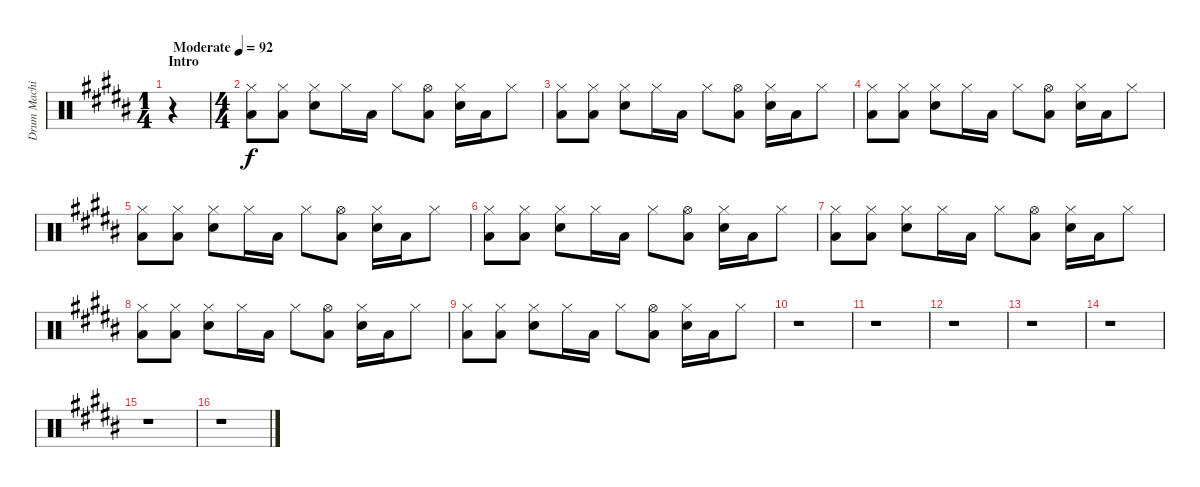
\track ("Drum Machine" "Drum Machi") {instrument percussion}
\staff {score}
\articulation defaults
\ts (1 4)
\section ("" "Intro")
\tempo (92 "Moderate")
\clef neutral
\ks b
r.4{dy f} |
\ts (4 4)
("Hi-Hat (closed)" "Low Floor Tom (hit)").8 ("Hi-Hat (closed)" "Low Floor Tom (hit)").8 ("Hi-Hat (closed)" "Hand Clap (hit)").8 "Hi-Hat (closed)".16 "Low Floor Tom (hit)".16 "Hi-Hat (closed)".8 ("Hi-Hat (open)" "Low Floor Tom (hit)").8 ("Hi-Hat (closed)" "Hand Clap (hit)").16 "Low Floor Tom (hit)".16 "Hi-Hat (closed)".8 |
("Hi-Hat (closed)" "Low Floor Tom (hit)").8 ("Hi-Hat (closed)" "Low Floor Tom (hit)").8 ("Hi-Hat (closed)" "Hand Clap (hit)").8 "Hi-Hat (closed)".16 "Low Floor Tom (hit)".16 "Hi-Hat (closed)".8 ("Hi-Hat (open)" "Low Floor Tom (hit)").8 ("Hi-Hat (closed)" "Hand Clap (hit)").16 "Low Floor Tom (hit)".16 "Hi-Hat (closed)".8 |
("Hi-Hat (closed)" "Low Floor Tom (hit)").8 ("Hi-Hat (closed)" "Low Floor Tom (hit)").8 ("Hi-Hat (closed)" "Hand Clap (hit)").8 "Hi-Hat (closed)".16 "Low Floor Tom (hit)".16 "Hi-Hat (closed)".8 ("Hi-Hat (open)" "Low Floor Tom (hit)").8 ("Hi-Hat (closed)" "Hand Clap (hit)").16 "Low Floor Tom (hit)".16 "Hi-Hat (closed)".8 |
("Hi-Hat (closed)" "Low Floor Tom (hit)").8 ("Hi-Hat (closed)" "Low Floor Tom (hit)").8 ("Hi-Hat (closed)" "Hand Clap (hit)").8 "Hi-Hat (closed)".16 "Low Floor Tom (hit)".16 "Hi-Hat (closed)".8 ("Hi-Hat (open)" "Low Floor Tom (hit)").8 ("Hi-Hat (closed)" "Hand Clap (hit)").16 "Low Floor Tom (hit)".16 "Hi-Hat (closed)".8 |
("Hi-Hat (closed)" "Low Floor Tom (hit)").8 ("Hi-Hat (closed)" "Low Floor Tom (hit)").8 ("Hi-Hat (closed)" "Hand Clap (hit)").8 "Hi-Hat (closed)".16 "Low Floor Tom (hit)".16 "Hi-Hat (closed)".8 ("Hi-Hat (open)" "Low Floor Tom (hit)").8 ("Hi-Hat (closed)" "Hand Clap (hit)").16 "Low Floor Tom (hit)".16 "Hi-Hat (closed)".8 |
("Hi-Hat (closed)" "Low Floor Tom (hit)").8 ("Hi-Hat (closed)" "Low Floor Tom (hit)").8 ("Hi-Hat (closed)" "Hand Clap (hit)").8 "Hi-Hat (closed)".16 "Low Floor Tom (hit)".16 "Hi-Hat (closed)".8 ("Hi-Hat (open)" "Low Floor Tom (hit)").8 ("Hi-Hat (closed)" "Hand Clap (hit)").16 "Low Floor Tom (hit)".16 "Hi-Hat (closed)".8 |
("Hi-Hat (closed)" "Low Floor Tom (hit)").8 ("Hi-Hat (closed)" "Low Floor Tom (hit)").8 ("Hi-Hat (closed)" "Hand Clap (hit)").8 "Hi-Hat (closed)".16 "Low Floor Tom (hit)".16 "Hi-Hat (closed)".8 ("Hi-Hat (open)" "Low Floor Tom (hit)").8 ("Hi-Hat (closed)" "Hand Clap (hit)").16 "Low Floor Tom (hit)".16 "Hi-Hat (closed)".8 |
("Hi-Hat (closed)" "Low Floor Tom (hit)").8 ("Hi-Hat (closed)" "Low Floor Tom (hit)").8 ("Hi-Hat (closed)" "Hand Clap (hit)").8 "Hi-Hat (closed)".16 "Low Floor Tom (hit)".16 "Hi-Hat (closed)".8 ("Hi-Hat (open)" "Low Floor Tom (hit)").8 ("Hi-Hat (closed)" "Hand Clap (hit)").16 "Low Floor Tom (hit)".16 "Hi-Hat (closed)".8 |
r.1 |
r.1 |
r.1 |
r.1 |
r.1 |
r.1 |
r.1
